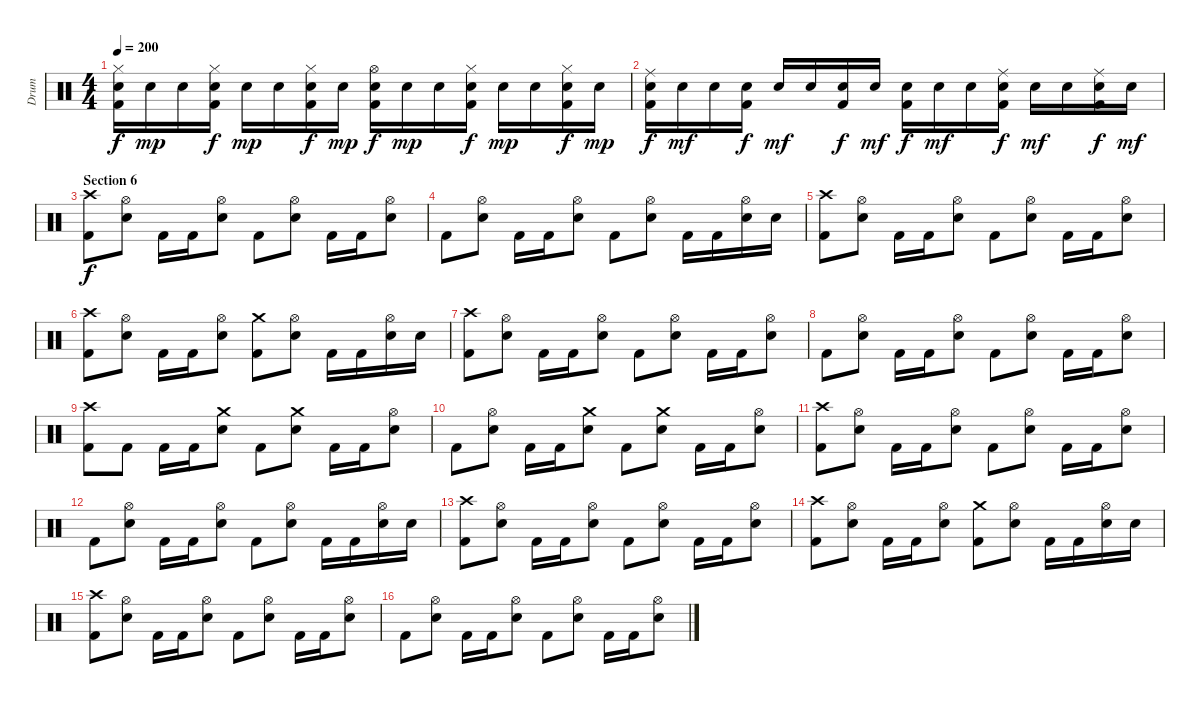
\track ("Drum" "Drum") {instrument percussion}
\staff {score}
\articulation defaults
\ts (4 4)
\tempo 200
\clef neutral
\ks c
("Hi-Hat (closed)" "Electric Snare (hit)" "Kick (hit) 2").16{dy f} "Electric Snare (hit)".16{dy mp} "Electric Snare (hit)".16 ("Hi-Hat (closed)" "Electric Snare (hit)" "Kick (hit) 2").16{dy f} "Electric Snare (hit)".16{dy mp} "Electric Snare (hit)".16 ("Hi-Hat (closed)" "Electric Snare (hit)" "Kick (hit) 2").16{dy f} "Electric Snare (hit)".16{dy mp} ("Hi-Hat (open)" "Electric Snare (hit)" "Kick (hit) 2").16{dy f} "Electric Snare (hit)".16{dy mp} "Electric Snare (hit)".16 ("Hi-Hat (closed)" "Electric Snare (hit)" "Kick (hit) 2").16{dy f} "Electric Snare (hit)".16{dy mp} "Electric Snare (hit)".16 ("Hi-Hat (closed)" "Electric Snare (hit)" "Kick (hit) 2").16{dy f} "Electric Snare (hit)".16{dy mp} |
("Ride (middle)" "Electric Snare (hit)" "Kick (hit) 2").16{dy f} "Electric Snare (hit)".16{dy mf} "Electric Snare (hit)".16 ("Electric Snare (hit)" "Kick (hit) 2").16{dy f} "Electric Snare (hit)".16{dy mf} "Electric Snare (hit)".16 ("Electric Snare (hit)" "Kick (hit) 2").16{dy f} "Electric Snare (hit)".16{dy mf} ("Electric Snare (hit)" "Kick (hit) 2").16{dy f} "Electric Snare (hit)".16{dy mf} "Electric Snare (hit)".16 ("Ride (middle)" "Electric Snare (hit)" "Kick (hit) 2").16{dy f} "Electric Snare (hit)".16{dy mf} "Electric Snare (hit)".16 ("Ride (middle)" "Electric Snare (hit)" "Kick (hit) 2").16{dy f} "Electric Snare (hit)".16{dy mf} |
\section ("" "Section 6")
("Crash high (hit)" "Kick (hit) 2").8{dy f} ("Hi-Hat (open)" "Electric Snare (hit)").8 "Kick (hit) 2".16 "Kick (hit) 2".16 ("Hi-Hat (open)" "Electric Snare (hit)").8 "Kick (hit) 2".8 ("Hi-Hat (open)" "Electric Snare (hit)").8 "Kick (hit) 2".16 "Kick (hit) 2".16 ("Hi-Hat (open)" "Electric Snare (hit)").8 |
"Kick (hit) 2".8 ("Hi-Hat (open)" "Electric Snare (hit)").8 "Kick (hit) 2".16 "Kick (hit) 2".16 ("Hi-Hat (open)" "Electric Snare (hit)").8 "Kick (hit) 2".8 ("Hi-Hat (open)" "Electric Snare (hit)").8 "Kick (hit) 2".16 "Kick (hit) 2".16 ("Hi-Hat (open)" "Electric Snare (hit)").16 "Electric Snare (hit)".16 |
("Crash high (hit)" "Kick (hit) 2").8 ("Hi-Hat (open)" "Electric Snare (hit)").8 "Kick (hit) 2".16 "Kick (hit) 2".16 ("Hi-Hat (open)" "Electric Snare (hit)").8 "Kick (hit) 2".8 ("Hi-Hat (open)" "Electric Snare (hit)").8 "Kick (hit) 2".16 "Kick (hit) 2".16 ("Hi-Hat (open)" "Electric Snare (hit)").8 |
("Crash high (hit)" "Kick (hit) 2").8 ("Hi-Hat (open)" "Electric Snare (hit)").8 "Kick (hit) 2".16 "Kick (hit) 2".16 ("Hi-Hat (open)" "Electric Snare (hit)").8 ("Crash medium (hit)" "Kick (hit) 2").8 ("Hi-Hat (open)" "Electric Snare (hit)").8 "Kick (hit) 2".16 "Kick (hit) 2".16 ("Hi-Hat (open)" "Electric Snare (hit)").16 "Electric Snare (hit)".16 |
("Crash high (hit)" "Kick (hit) 2").8 ("Hi-Hat (open)" "Electric Snare (hit)").8 "Kick (hit) 2".16 "Kick (hit) 2".16 ("Hi-Hat (open)" "Electric Snare (hit)").8 "Kick (hit) 2".8 ("Hi-Hat (open)" "Electric Snare (hit)").8 "Kick (hit) 2".16 "Kick (hit) 2".16 ("Hi-Hat (open)" "Electric Snare (hit)").8 |
"Kick (hit) 2".8 ("Hi-Hat (open)" "Electric Snare (hit)").8 "Kick (hit) 2".16 "Kick (hit) 2".16 ("Hi-Hat (open)" "Electric Snare (hit)").8 "Kick (hit) 2".8 ("Hi-Hat (open)" "Electric Snare (hit)").8 "Kick (hit) 2".16 "Kick (hit) 2".16 ("Hi-Hat (open)" "Electric Snare (hit)").8 |
("Crash high (hit)" "Kick (hit) 2").8 "Kick (hit) 2".8 "Kick (hit) 2".16 "Kick (hit) 2".16 ("Crash medium (hit)" "Electric Snare (hit)").8 "Kick (hit) 2".8 ("Crash medium (hit)" "Electric Snare (hit)").8 "Kick (hit) 2".16 "Kick (hit) 2".16 ("Hi-Hat (open)" "Electric Snare (hit)").8 |
"Kick (hit) 2".8 ("Hi-Hat (open)" "Electric Snare (hit)").8 "Kick (hit) 2".16 "Kick (hit) 2".16 ("Crash medium (hit)" "Electric Snare (hit)").8 "Kick (hit) 2".8 ("Crash medium (hit)" "Electric Snare (hit)").8 "Kick (hit) 2".16 "Kick (hit) 2".16 ("Hi-Hat (open)" "Electric Snare (hit)").8 |
("Crash high (hit)" "Kick (hit) 2").8 ("Hi-Hat (open)" "Electric Snare (hit)").8 "Kick (hit) 2".16 "Kick (hit) 2".16 ("Hi-Hat (open)" "Electric Snare (hit)").8 "Kick (hit) 2".8 ("Hi-Hat (open)" "Electric Snare (hit)").8 "Kick (hit) 2".16 "Kick (hit) 2".16 ("Hi-Hat (open)" "Electric Snare (hit)").8 |
"Kick (hit) 2".8 ("Hi-Hat (open)" "Electric Snare (hit)").8 "Kick (hit) 2".16 "Kick (hit) 2".16 ("Hi-Hat (open)" "Electric Snare (hit)").8 "Kick (hit) 2".8 ("Hi-Hat (open)" "Electric Snare (hit)").8 "Kick (hit) 2".16 "Kick (hit) 2".16 ("Hi-Hat (open)" "Electric Snare (hit)").16 "Electric Snare (hit)".16 |
("Crash high (hit)" "Kick (hit) 2").8 ("Hi-Hat (open)" "Electric Snare (hit)").8 "Kick (hit) 2".16 "Kick (hit) 2".16 ("Hi-Hat (open)" "Electric Snare (hit)").8 "Kick (hit) 2".8 ("Hi-Hat (open)" "Electric Snare (hit)").8 "Kick (hit) 2".16 "Kick (hit) 2".16 ("Hi-Hat (open)" "Electric Snare (hit)").8 |
("Crash high (hit)" "Kick (hit) 2").8 ("Hi-Hat (open)" "Electric Snare (hit)").8 "Kick (hit) 2".16 "Kick (hit) 2".16 ("Hi-Hat (open)" "Electric Snare (hit)").8 ("Crash medium (hit)" "Kick (hit) 2").8 ("Hi-Hat (open)" "Electric Snare (hit)").8 "Kick (hit) 2".16 "Kick (hit) 2".16 ("Hi-Hat (open)" "Electric Snare (hit)").16 "Electric Snare (hit)".16 |
("Crash high (hit)" "Kick (hit) 2").8 ("Hi-Hat (open)" "Electric Snare (hit)").8 "Kick (hit) 2".16 "Kick (hit) 2".16 ("Hi-Hat (open)" "Electric Snare (hit)").8 "Kick (hit) 2".8 ("Hi-Hat (open)" "Electric Snare (hit)").8 "Kick (hit) 2".16 "Kick (hit) 2".16 ("Hi-Hat (open)" "Electric Snare (hit)").8 |
"Kick (hit) 2".8 ("Hi-Hat (open)" "Electric Snare (hit)").8 "Kick (hit) 2".16 "Kick (hit) 2".16 ("Hi-Hat (open)" "Electric Snare (hit)").8 "Kick (hit) 2".8 ("Hi-Hat (open)" "Electric Snare (hit)").8 "Kick (hit) 2".16 "Kick (hit) 2".16 ("Hi-Hat (open)" "Electric Snare (hit)").8
